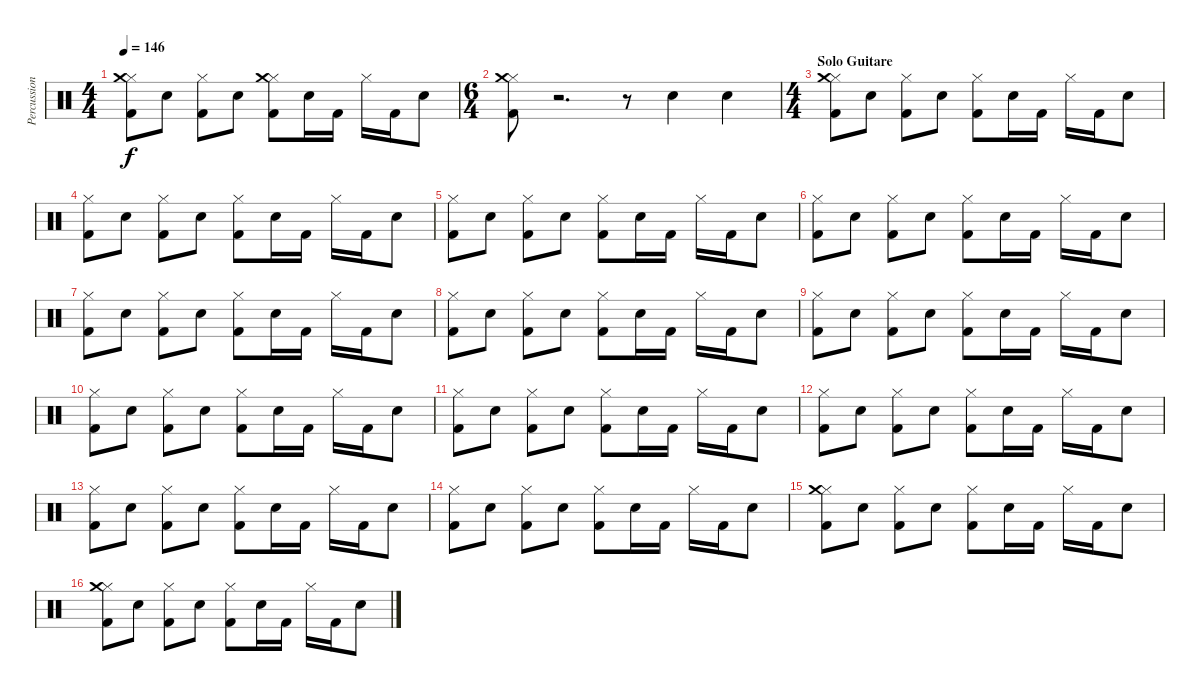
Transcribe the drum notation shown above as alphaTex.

\track ("Percussions" "Percussion") {instrument percussion}
\staff {score}
\articulation defaults
\ts (4 4)
\tempo 146
\clef neutral
\ks c
("Hi-Hat (closed)" "Crash medium (hit)" "Kick (hit) 2").8{dy f} "Electric Snare (hit)".8 ("Hi-Hat (closed)" "Kick (hit) 2").8 "Electric Snare (hit)".8 ("Hi-Hat (closed)" "Crash medium (hit)" "Kick (hit) 2").8 "Electric Snare (hit)".16 "Kick (hit) 2".16 "Hi-Hat (closed)".16 "Kick (hit) 2".16 "Electric Snare (hit)".8 |
\ts (6 4)
("Hi-Hat (closed)" "Crash medium (hit)" "Kick (hit) 2").8 r.2{d} r.8 "Electric Snare (hit)".4 "Electric Snare (hit)".4 |
\ts (4 4)
\section ("" "Solo Guitare")
("Hi-Hat (closed)" "Crash medium (hit)" "Kick (hit) 2").8 "Electric Snare (hit)".8 ("Hi-Hat (closed)" "Kick (hit) 2").8 "Electric Snare (hit)".8 ("Hi-Hat (closed)" "Kick (hit) 2").8 "Electric Snare (hit)".16 "Kick (hit) 2".16 "Hi-Hat (closed)".16 "Kick (hit) 2".16 "Electric Snare (hit)".8 |
("Hi-Hat (closed)" "Kick (hit) 2").8 "Electric Snare (hit)".8 ("Hi-Hat (closed)" "Kick (hit) 2").8 "Electric Snare (hit)".8 ("Hi-Hat (closed)" "Kick (hit) 2").8 "Electric Snare (hit)".16 "Kick (hit) 2".16 "Hi-Hat (closed)".16 "Kick (hit) 2".16 "Electric Snare (hit)".8 |
("Hi-Hat (closed)" "Kick (hit) 2").8 "Electric Snare (hit)".8 ("Hi-Hat (closed)" "Kick (hit) 2").8 "Electric Snare (hit)".8 ("Hi-Hat (closed)" "Kick (hit) 2").8 "Electric Snare (hit)".16 "Kick (hit) 2".16 "Hi-Hat (closed)".16 "Kick (hit) 2".16 "Electric Snare (hit)".8 |
("Hi-Hat (closed)" "Kick (hit) 2").8 "Electric Snare (hit)".8 ("Hi-Hat (closed)" "Kick (hit) 2").8 "Electric Snare (hit)".8 ("Hi-Hat (closed)" "Kick (hit) 2").8 "Electric Snare (hit)".16 "Kick (hit) 2".16 "Hi-Hat (closed)".16 "Kick (hit) 2".16 "Electric Snare (hit)".8 |
("Hi-Hat (closed)" "Kick (hit) 2").8 "Electric Snare (hit)".8 ("Hi-Hat (closed)" "Kick (hit) 2").8 "Electric Snare (hit)".8 ("Hi-Hat (closed)" "Kick (hit) 2").8 "Electric Snare (hit)".16 "Kick (hit) 2".16 "Hi-Hat (closed)".16 "Kick (hit) 2".16 "Electric Snare (hit)".8 |
("Hi-Hat (closed)" "Kick (hit) 2").8 "Electric Snare (hit)".8 ("Hi-Hat (closed)" "Kick (hit) 2").8 "Electric Snare (hit)".8 ("Hi-Hat (closed)" "Kick (hit) 2").8 "Electric Snare (hit)".16 "Kick (hit) 2".16 "Hi-Hat (closed)".16 "Kick (hit) 2".16 "Electric Snare (hit)".8 |
("Hi-Hat (closed)" "Kick (hit) 2").8 "Electric Snare (hit)".8 ("Hi-Hat (closed)" "Kick (hit) 2").8 "Electric Snare (hit)".8 ("Hi-Hat (closed)" "Kick (hit) 2").8 "Electric Snare (hit)".16 "Kick (hit) 2".16 "Hi-Hat (closed)".16 "Kick (hit) 2".16 "Electric Snare (hit)".8 |
("Hi-Hat (closed)" "Kick (hit) 2").8 "Electric Snare (hit)".8 ("Hi-Hat (closed)" "Kick (hit) 2").8 "Electric Snare (hit)".8 ("Hi-Hat (closed)" "Kick (hit) 2").8 "Electric Snare (hit)".16 "Kick (hit) 2".16 "Hi-Hat (closed)".16 "Kick (hit) 2".16 "Electric Snare (hit)".8 |
("Hi-Hat (closed)" "Kick (hit) 2").8 "Electric Snare (hit)".8 ("Hi-Hat (closed)" "Kick (hit) 2").8 "Electric Snare (hit)".8 ("Hi-Hat (closed)" "Kick (hit) 2").8 "Electric Snare (hit)".16 "Kick (hit) 2".16 "Hi-Hat (closed)".16 "Kick (hit) 2".16 "Electric Snare (hit)".8 |
("Hi-Hat (closed)" "Kick (hit) 2").8 "Electric Snare (hit)".8 ("Hi-Hat (closed)" "Kick (hit) 2").8 "Electric Snare (hit)".8 ("Hi-Hat (closed)" "Kick (hit) 2").8 "Electric Snare (hit)".16 "Kick (hit) 2".16 "Hi-Hat (closed)".16 "Kick (hit) 2".16 "Electric Snare (hit)".8 |
("Hi-Hat (closed)" "Kick (hit) 2").8 "Electric Snare (hit)".8 ("Hi-Hat (closed)" "Kick (hit) 2").8 "Electric Snare (hit)".8 ("Hi-Hat (closed)" "Kick (hit) 2").8 "Electric Snare (hit)".16 "Kick (hit) 2".16 "Hi-Hat (closed)".16 "Kick (hit) 2".16 "Electric Snare (hit)".8 |
("Hi-Hat (closed)" "Kick (hit) 2").8 "Electric Snare (hit)".8 ("Hi-Hat (closed)" "Kick (hit) 2").8 "Electric Snare (hit)".8 ("Hi-Hat (closed)" "Kick (hit) 2").8 "Electric Snare (hit)".16 "Kick (hit) 2".16 "Hi-Hat (closed)".16 "Kick (hit) 2".16 "Electric Snare (hit)".8 |
("Hi-Hat (closed)" "Crash medium (hit)" "Kick (hit) 2").8 "Electric Snare (hit)".8 ("Hi-Hat (closed)" "Kick (hit) 2").8 "Electric Snare (hit)".8 ("Hi-Hat (closed)" "Kick (hit) 2").8 "Electric Snare (hit)".16 "Kick (hit) 2".16 "Hi-Hat (closed)".16 "Kick (hit) 2".16 "Electric Snare (hit)".8 |
("Hi-Hat (closed)" "Crash medium (hit)" "Kick (hit) 2").8 "Electric Snare (hit)".8 ("Hi-Hat (closed)" "Kick (hit) 2").8 "Electric Snare (hit)".8 ("Hi-Hat (closed)" "Kick (hit) 2").8 "Electric Snare (hit)".16 "Kick (hit) 2".16 "Hi-Hat (closed)".16 "Kick (hit) 2".16 "Electric Snare (hit)".8
